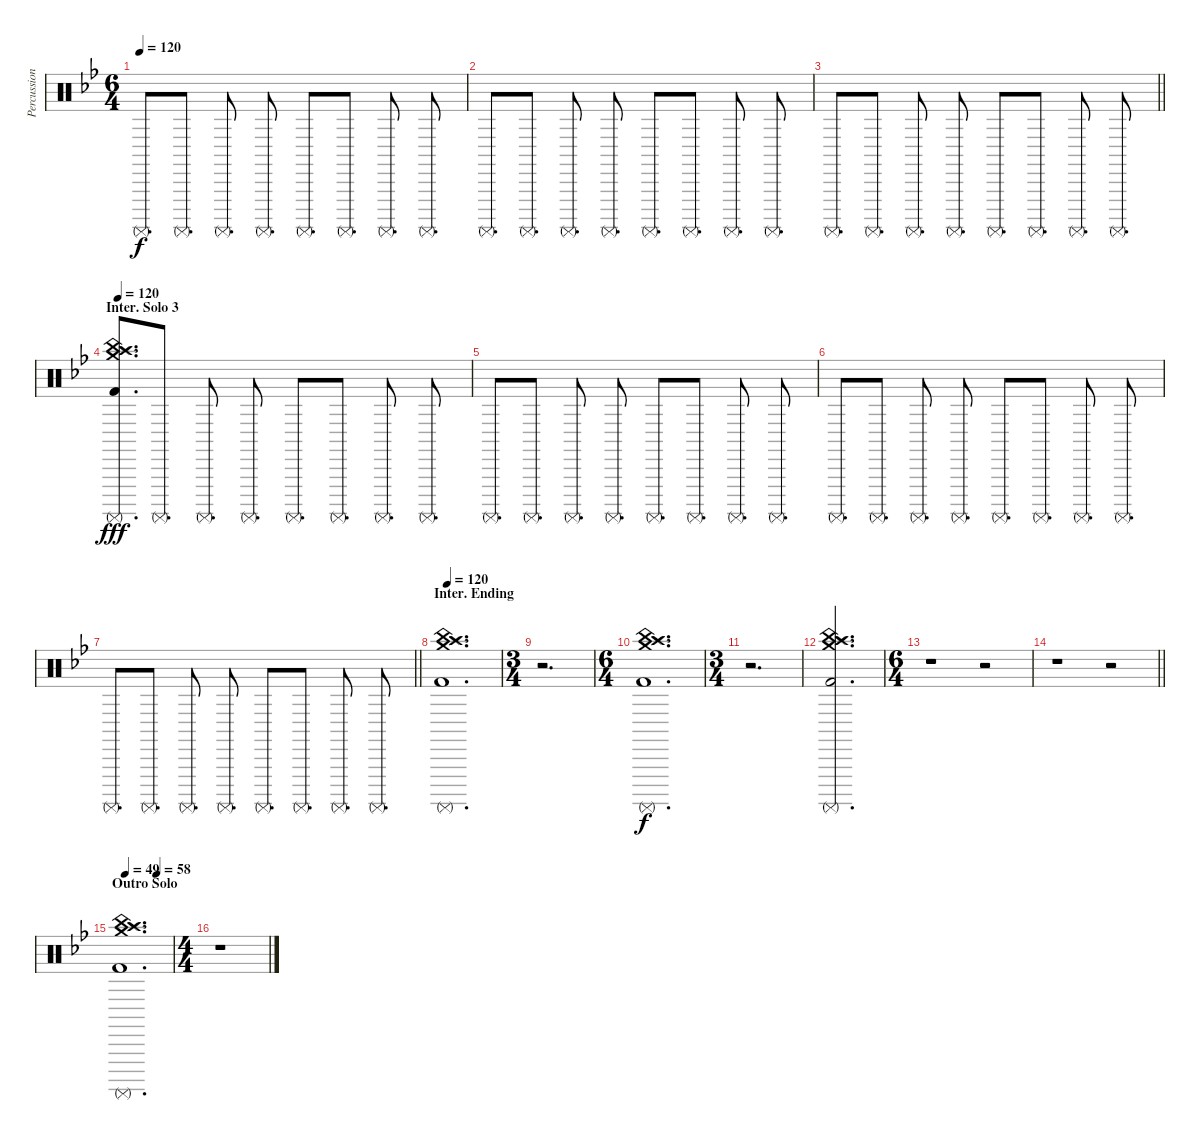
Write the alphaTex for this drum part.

\track ("Percussion" "Percussion") {instrument percussion}
\staff {score}
\articulation defaults
\ts (6 4)
\tempo 120
\clef neutral
\ks bb "Surdo (mute)".8{d dy f} "Surdo (mute)".8{d} "Surdo (mute)".8{d} "Surdo (mute)".8{d} "Surdo (mute)".8{d} "Surdo (mute)".8{d} "Surdo (mute)".8{d} "Surdo (mute)".8{d}
|
"Surdo (mute)".8{d} "Surdo (mute)".8{d} "Surdo (mute)".8{d} "Surdo (mute)".8{d} "Surdo (mute)".8{d} "Surdo (mute)".8{d} "Surdo (mute)".8{d} "Surdo (mute)".8{d} |
\barLineRight lightlight "Surdo (mute)".8{d} "Surdo (mute)".8{d} "Surdo (mute)".8{d} "Surdo (mute)".8{d} "Surdo (mute)".8{d} "Surdo (mute)".8{d} "Surdo (mute)".8{d} "Surdo (mute)".8{d}
|
\section ("" "Inter. Solo 3")
\tempo 120
("Crash high (hit)" "Crash medium (hit)" "Splash (hit)" "China (hit)" "Surdo (mute)" "Kick (hit) 2").8{d dy fff} "Surdo (mute)".8{d} "Surdo (mute)".8{d} "Surdo (mute)".8{d} "Surdo (mute)".8{d} "Surdo (mute)".8{d} "Surdo (mute)".8{d} "Surdo (mute)".8{d} |
"Surdo (mute)".8{d} "Surdo (mute)".8{d} "Surdo (mute)".8{d} "Surdo (mute)".8{d} "Surdo (mute)".8{d} "Surdo (mute)".8{d} "Surdo (mute)".8{d} "Surdo (mute)".8{d} |
"Surdo (mute)".8{d} "Surdo (mute)".8{d} "Surdo (mute)".8{d} "Surdo (mute)".8{d} "Surdo (mute)".8{d} "Surdo (mute)".8{d} "Surdo (mute)".8{d} "Surdo (mute)".8{d} |
\barLineRight lightlight "Surdo (mute)".8{d} "Surdo (mute)".8{d} "Surdo (mute)".8{d} "Surdo (mute)".8{d} "Surdo (mute)".8{d} "Surdo (mute)".8{d} "Surdo (mute)".8{d} "Surdo (mute)".8{d}
|
\section ("" "Inter. Ending")
\tempo 120
("Crash high (hit)" "Crash medium (hit)" "Splash (hit)" "China (hit)" "Surdo (mute)" "Kick (hit) 2").1{d} |
\ts (3 4)
r.2{d} |
\ts (6 4)
("Crash high (hit)" "Crash medium (hit)" "Splash (hit)" "China (hit)" "Surdo (mute)" "Kick (hit) 2").1{d dy f} |
\ts (3 4)
r.2{d} |
("Crash high (hit)" "Crash medium (hit)" "Splash (hit)" "China (hit)" "Surdo (mute)" "Kick (hit) 2").2{d} |
\ts (6 4)
r.1 r.2 |
\barLineRight lightlight
r.1 r.2 |
\section ("" "Outro Solo")
\tempo 49
\tempo (58 0.6666666666666666)
("Crash high (hit)" "Crash medium (hit)" "Splash (hit)" "China (hit)" "Surdo (mute)" "Kick (hit) 2").1{d} |
\ts (4 4)
r.1
